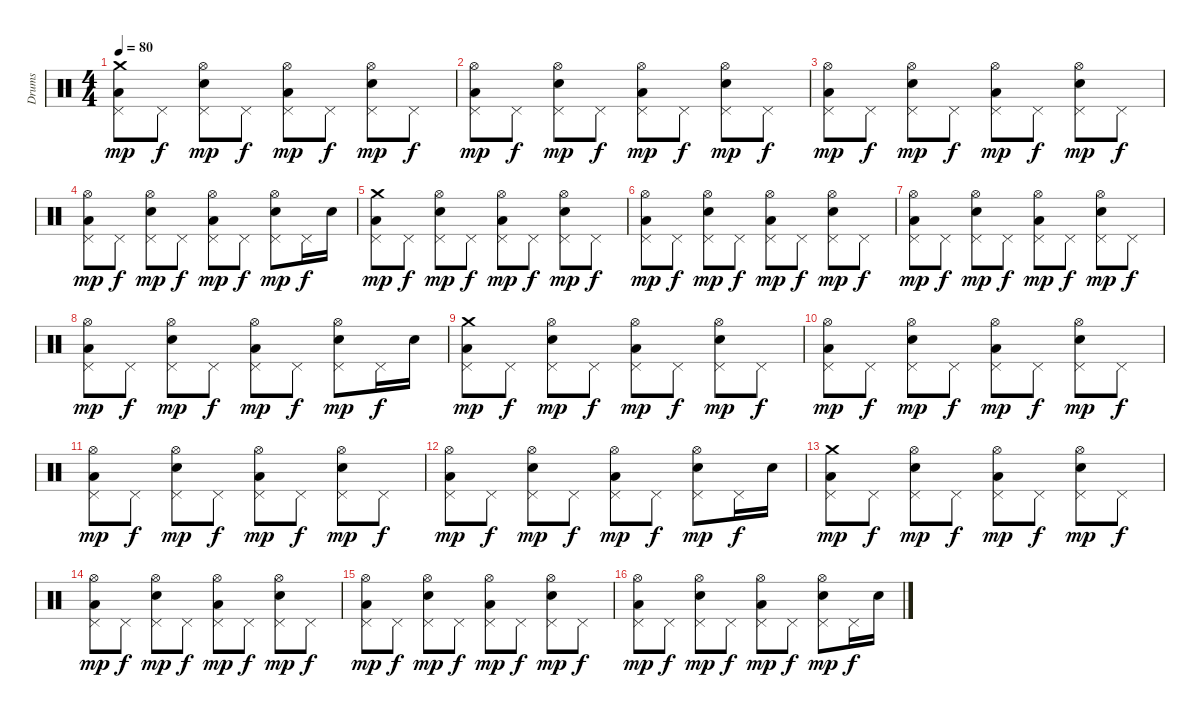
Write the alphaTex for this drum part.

\track ("Drums" "Drums") {instrument percussion}
\staff {score}
\articulation defaults
\ts (4 4)
\tempo 80
\clef neutral
\ks c
("Low Floor Tom (hit)" "Pedal Hi-Hat (hit)" "Crash medium (hit)").8{dy mp} "Pedal Hi-Hat (hit)".8{dy f} ("Electric Snare (hit)" "Pedal Hi-Hat (hit)" "Hi-Hat (open)").8{dy mp} "Pedal Hi-Hat (hit)".8{dy f} ("Low Floor Tom (hit)" "Pedal Hi-Hat (hit)" "Hi-Hat (open)").8{dy mp} "Pedal Hi-Hat (hit)".8{dy f} ("Electric Snare (hit)" "Pedal Hi-Hat (hit)" "Hi-Hat (open)").8{dy mp} "Pedal Hi-Hat (hit)".8{dy f} |
("Low Floor Tom (hit)" "Pedal Hi-Hat (hit)" "Hi-Hat (open)").8{dy mp} "Pedal Hi-Hat (hit)".8{dy f} ("Electric Snare (hit)" "Pedal Hi-Hat (hit)" "Hi-Hat (open)").8{dy mp} "Pedal Hi-Hat (hit)".8{dy f} ("Low Floor Tom (hit)" "Pedal Hi-Hat (hit)" "Hi-Hat (open)").8{dy mp} "Pedal Hi-Hat (hit)".8{dy f} ("Electric Snare (hit)" "Pedal Hi-Hat (hit)" "Hi-Hat (open)").8{dy mp} "Pedal Hi-Hat (hit)".8{dy f} |
("Low Floor Tom (hit)" "Pedal Hi-Hat (hit)" "Hi-Hat (open)").8{dy mp} "Pedal Hi-Hat (hit)".8{dy f} ("Electric Snare (hit)" "Pedal Hi-Hat (hit)" "Hi-Hat (open)").8{dy mp} "Pedal Hi-Hat (hit)".8{dy f} ("Low Floor Tom (hit)" "Pedal Hi-Hat (hit)" "Hi-Hat (open)").8{dy mp} "Pedal Hi-Hat (hit)".8{dy f} ("Electric Snare (hit)" "Pedal Hi-Hat (hit)" "Hi-Hat (open)").8{dy mp} "Pedal Hi-Hat (hit)".8{dy f} |
("Low Floor Tom (hit)" "Pedal Hi-Hat (hit)" "Hi-Hat (open)").8{dy mp} "Pedal Hi-Hat (hit)".8{dy f} ("Electric Snare (hit)" "Pedal Hi-Hat (hit)" "Hi-Hat (open)").8{dy mp} "Pedal Hi-Hat (hit)".8{dy f} ("Low Floor Tom (hit)" "Pedal Hi-Hat (hit)" "Hi-Hat (open)").8{dy mp} "Pedal Hi-Hat (hit)".8{dy f} ("Electric Snare (hit)" "Pedal Hi-Hat (hit)" "Hi-Hat (open)").8{dy mp} "Pedal Hi-Hat (hit)".16{dy f} "Electric Snare (hit)".16 |
("Low Floor Tom (hit)" "Pedal Hi-Hat (hit)" "Crash medium (hit)").8{dy mp} "Pedal Hi-Hat (hit)".8{dy f} ("Electric Snare (hit)" "Pedal Hi-Hat (hit)" "Hi-Hat (open)").8{dy mp} "Pedal Hi-Hat (hit)".8{dy f} ("Low Floor Tom (hit)" "Pedal Hi-Hat (hit)" "Hi-Hat (open)").8{dy mp} "Pedal Hi-Hat (hit)".8{dy f} ("Electric Snare (hit)" "Pedal Hi-Hat (hit)" "Hi-Hat (open)").8{dy mp} "Pedal Hi-Hat (hit)".8{dy f} |
("Low Floor Tom (hit)" "Pedal Hi-Hat (hit)" "Hi-Hat (open)").8{dy mp} "Pedal Hi-Hat (hit)".8{dy f} ("Electric Snare (hit)" "Pedal Hi-Hat (hit)" "Hi-Hat (open)").8{dy mp} "Pedal Hi-Hat (hit)".8{dy f} ("Low Floor Tom (hit)" "Pedal Hi-Hat (hit)" "Hi-Hat (open)").8{dy mp} "Pedal Hi-Hat (hit)".8{dy f} ("Electric Snare (hit)" "Pedal Hi-Hat (hit)" "Hi-Hat (open)").8{dy mp} "Pedal Hi-Hat (hit)".8{dy f} |
("Low Floor Tom (hit)" "Pedal Hi-Hat (hit)" "Hi-Hat (open)").8{dy mp} "Pedal Hi-Hat (hit)".8{dy f} ("Electric Snare (hit)" "Pedal Hi-Hat (hit)" "Hi-Hat (open)").8{dy mp} "Pedal Hi-Hat (hit)".8{dy f} ("Low Floor Tom (hit)" "Pedal Hi-Hat (hit)" "Hi-Hat (open)").8{dy mp} "Pedal Hi-Hat (hit)".8{dy f} ("Electric Snare (hit)" "Pedal Hi-Hat (hit)" "Hi-Hat (open)").8{dy mp} "Pedal Hi-Hat (hit)".8{dy f} |
("Low Floor Tom (hit)" "Pedal Hi-Hat (hit)" "Hi-Hat (open)").8{dy mp} "Pedal Hi-Hat (hit)".8{dy f} ("Electric Snare (hit)" "Pedal Hi-Hat (hit)" "Hi-Hat (open)").8{dy mp} "Pedal Hi-Hat (hit)".8{dy f} ("Low Floor Tom (hit)" "Pedal Hi-Hat (hit)" "Hi-Hat (open)").8{dy mp} "Pedal Hi-Hat (hit)".8{dy f} ("Electric Snare (hit)" "Pedal Hi-Hat (hit)" "Hi-Hat (open)").8{dy mp} "Pedal Hi-Hat (hit)".16{dy f} "Electric Snare (hit)".16 |
("Low Floor Tom (hit)" "Pedal Hi-Hat (hit)" "Crash medium (hit)").8{dy mp} "Pedal Hi-Hat (hit)".8{dy f} ("Electric Snare (hit)" "Pedal Hi-Hat (hit)" "Hi-Hat (open)").8{dy mp} "Pedal Hi-Hat (hit)".8{dy f} ("Low Floor Tom (hit)" "Pedal Hi-Hat (hit)" "Hi-Hat (open)").8{dy mp} "Pedal Hi-Hat (hit)".8{dy f} ("Electric Snare (hit)" "Pedal Hi-Hat (hit)" "Hi-Hat (open)").8{dy mp} "Pedal Hi-Hat (hit)".8{dy f} |
("Low Floor Tom (hit)" "Pedal Hi-Hat (hit)" "Hi-Hat (open)").8{dy mp} "Pedal Hi-Hat (hit)".8{dy f} ("Electric Snare (hit)" "Pedal Hi-Hat (hit)" "Hi-Hat (open)").8{dy mp} "Pedal Hi-Hat (hit)".8{dy f} ("Low Floor Tom (hit)" "Pedal Hi-Hat (hit)" "Hi-Hat (open)").8{dy mp} "Pedal Hi-Hat (hit)".8{dy f} ("Electric Snare (hit)" "Pedal Hi-Hat (hit)" "Hi-Hat (open)").8{dy mp} "Pedal Hi-Hat (hit)".8{dy f} |
("Low Floor Tom (hit)" "Pedal Hi-Hat (hit)" "Hi-Hat (open)").8{dy mp} "Pedal Hi-Hat (hit)".8{dy f} ("Electric Snare (hit)" "Pedal Hi-Hat (hit)" "Hi-Hat (open)").8{dy mp} "Pedal Hi-Hat (hit)".8{dy f} ("Low Floor Tom (hit)" "Pedal Hi-Hat (hit)" "Hi-Hat (open)").8{dy mp} "Pedal Hi-Hat (hit)".8{dy f} ("Electric Snare (hit)" "Pedal Hi-Hat (hit)" "Hi-Hat (open)").8{dy mp} "Pedal Hi-Hat (hit)".8{dy f} |
("Low Floor Tom (hit)" "Pedal Hi-Hat (hit)" "Hi-Hat (open)").8{dy mp} "Pedal Hi-Hat (hit)".8{dy f} ("Electric Snare (hit)" "Pedal Hi-Hat (hit)" "Hi-Hat (open)").8{dy mp} "Pedal Hi-Hat (hit)".8{dy f} ("Low Floor Tom (hit)" "Pedal Hi-Hat (hit)" "Hi-Hat (open)").8{dy mp} "Pedal Hi-Hat (hit)".8{dy f} ("Electric Snare (hit)" "Pedal Hi-Hat (hit)" "Hi-Hat (open)").8{dy mp} "Pedal Hi-Hat (hit)".16{dy f} "Electric Snare (hit)".16 |
("Low Floor Tom (hit)" "Pedal Hi-Hat (hit)" "Crash medium (hit)").8{dy mp} "Pedal Hi-Hat (hit)".8{dy f} ("Electric Snare (hit)" "Pedal Hi-Hat (hit)" "Hi-Hat (open)").8{dy mp} "Pedal Hi-Hat (hit)".8{dy f} ("Low Floor Tom (hit)" "Pedal Hi-Hat (hit)" "Hi-Hat (open)").8{dy mp} "Pedal Hi-Hat (hit)".8{dy f} ("Electric Snare (hit)" "Pedal Hi-Hat (hit)" "Hi-Hat (open)").8{dy mp} "Pedal Hi-Hat (hit)".8{dy f} |
("Low Floor Tom (hit)" "Pedal Hi-Hat (hit)" "Hi-Hat (open)").8{dy mp} "Pedal Hi-Hat (hit)".8{dy f} ("Electric Snare (hit)" "Pedal Hi-Hat (hit)" "Hi-Hat (open)").8{dy mp} "Pedal Hi-Hat (hit)".8{dy f} ("Low Floor Tom (hit)" "Pedal Hi-Hat (hit)" "Hi-Hat (open)").8{dy mp} "Pedal Hi-Hat (hit)".8{dy f} ("Electric Snare (hit)" "Pedal Hi-Hat (hit)" "Hi-Hat (open)").8{dy mp} "Pedal Hi-Hat (hit)".8{dy f} |
("Low Floor Tom (hit)" "Pedal Hi-Hat (hit)" "Hi-Hat (open)").8{dy mp} "Pedal Hi-Hat (hit)".8{dy f} ("Electric Snare (hit)" "Pedal Hi-Hat (hit)" "Hi-Hat (open)").8{dy mp} "Pedal Hi-Hat (hit)".8{dy f} ("Low Floor Tom (hit)" "Pedal Hi-Hat (hit)" "Hi-Hat (open)").8{dy mp} "Pedal Hi-Hat (hit)".8{dy f} ("Electric Snare (hit)" "Pedal Hi-Hat (hit)" "Hi-Hat (open)").8{dy mp} "Pedal Hi-Hat (hit)".8{dy f} |
("Low Floor Tom (hit)" "Pedal Hi-Hat (hit)" "Hi-Hat (open)").8{dy mp} "Pedal Hi-Hat (hit)".8{dy f} ("Electric Snare (hit)" "Pedal Hi-Hat (hit)" "Hi-Hat (open)").8{dy mp} "Pedal Hi-Hat (hit)".8{dy f} ("Low Floor Tom (hit)" "Pedal Hi-Hat (hit)" "Hi-Hat (open)").8{dy mp} "Pedal Hi-Hat (hit)".8{dy f} ("Electric Snare (hit)" "Pedal Hi-Hat (hit)" "Hi-Hat (open)").8{dy mp} "Pedal Hi-Hat (hit)".16{dy f} "Electric Snare (hit)".16
